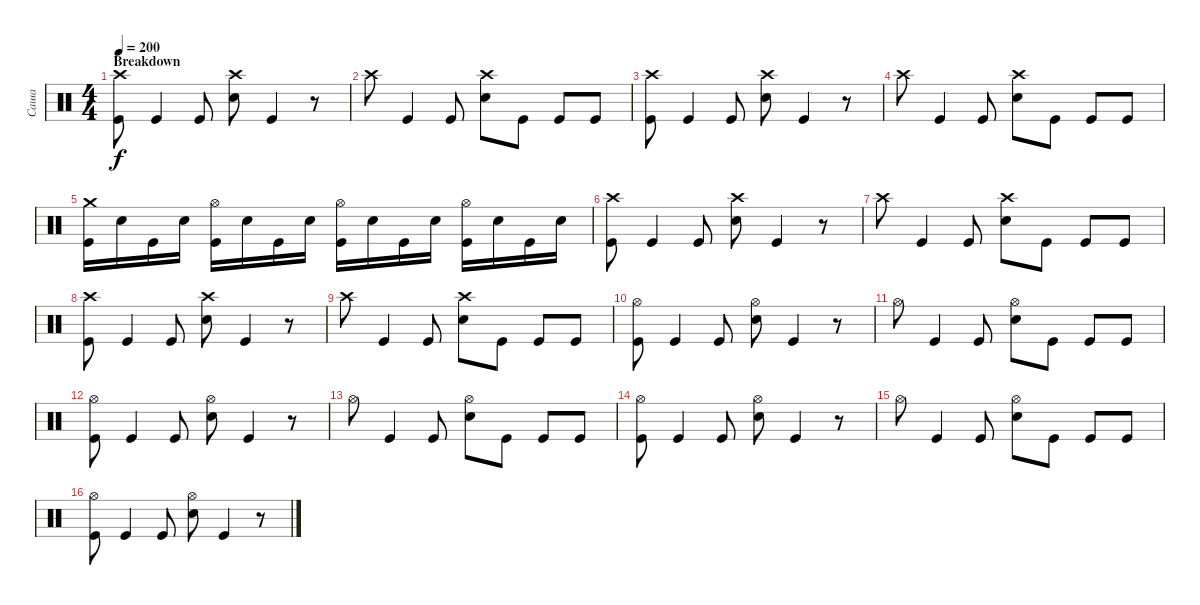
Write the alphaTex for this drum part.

\track ("Саша" "Саша") {instrument percussion}
\staff {score}
\articulation defaults
\ts (4 4)
\section ("" "Breakdown")
\tempo 200
\clef neutral
\ks c
("Crash high (hit)" "Kick (hit)").8{dy f} "Kick (hit)".4 "Kick (hit)".8 ("Crash high (hit)" "Electric Snare (hit)").8 "Kick (hit)".4 r.8 |
"Crash high (hit)".8 "Kick (hit)".4 "Kick (hit)".8 ("Crash high (hit)" "Electric Snare (hit)").8 "Kick (hit)".8 "Kick (hit)".8 "Kick (hit)".8 |
("Crash high (hit)" "Kick (hit)").8 "Kick (hit)".4 "Kick (hit)".8 ("Crash high (hit)" "Electric Snare (hit)").8 "Kick (hit)".4 r.8 |
"Crash high (hit)".8 "Kick (hit)".4 "Kick (hit)".8 ("Crash high (hit)" "Electric Snare (hit)").8 "Kick (hit)".8 "Kick (hit)".8 "Kick (hit)".8 |
("Crash medium (hit)" "Kick (hit)").16 "Electric Snare (hit)".16 "Kick (hit)".16 "Electric Snare (hit)".16 ("Hi-Hat (open)" "Kick (hit)").16 "Electric Snare (hit)".16 "Kick (hit)".16 "Electric Snare (hit)".16 ("Hi-Hat (open)" "Kick (hit)").16 "Electric Snare (hit)".16 "Kick (hit)".16 "Electric Snare (hit)".16 ("Hi-Hat (open)" "Kick (hit)").16 "Electric Snare (hit)".16 "Kick (hit)".16 "Electric Snare (hit)".16 |
("Crash high (hit)" "Kick (hit)").8 "Kick (hit)".4 "Kick (hit)".8 ("Crash high (hit)" "Electric Snare (hit)").8 "Kick (hit)".4 r.8 |
"Crash high (hit)".8 "Kick (hit)".4 "Kick (hit)".8 ("Crash high (hit)" "Electric Snare (hit)").8 "Kick (hit)".8 "Kick (hit)".8 "Kick (hit)".8 |
("Crash high (hit)" "Kick (hit)").8 "Kick (hit)".4 "Kick (hit)".8 ("Crash high (hit)" "Electric Snare (hit)").8 "Kick (hit)".4 r.8 |
"Crash high (hit)".8 "Kick (hit)".4 "Kick (hit)".8 ("Crash high (hit)" "Electric Snare (hit)").8 "Kick (hit)".8 "Kick (hit)".8 "Kick (hit)".8 |
("Hi-Hat (open)" "Kick (hit)").8 "Kick (hit)".4 "Kick (hit)".8 ("Hi-Hat (open)" "Electric Snare (hit)").8 "Kick (hit)".4 r.8 |
"Hi-Hat (open)".8 "Kick (hit)".4 "Kick (hit)".8 ("Hi-Hat (open)" "Electric Snare (hit)").8 "Kick (hit)".8 "Kick (hit)".8 "Kick (hit)".8 |
("Hi-Hat (open)" "Kick (hit)").8 "Kick (hit)".4 "Kick (hit)".8 ("Hi-Hat (open)" "Electric Snare (hit)").8 "Kick (hit)".4 r.8 |
"Hi-Hat (open)".8 "Kick (hit)".4 "Kick (hit)".8 ("Hi-Hat (open)" "Electric Snare (hit)").8 "Kick (hit)".8 "Kick (hit)".8 "Kick (hit)".8 |
("Hi-Hat (open)" "Kick (hit)").8 "Kick (hit)".4 "Kick (hit)".8 ("Hi-Hat (open)" "Electric Snare (hit)").8 "Kick (hit)".4 r.8 |
"Hi-Hat (open)".8 "Kick (hit)".4 "Kick (hit)".8 ("Hi-Hat (open)" "Electric Snare (hit)").8 "Kick (hit)".8 "Kick (hit)".8 "Kick (hit)".8 |
("Hi-Hat (open)" "Kick (hit)").8 "Kick (hit)".4 "Kick (hit)".8 ("Hi-Hat (open)" "Electric Snare (hit)").8 "Kick (hit)".4 r.8
